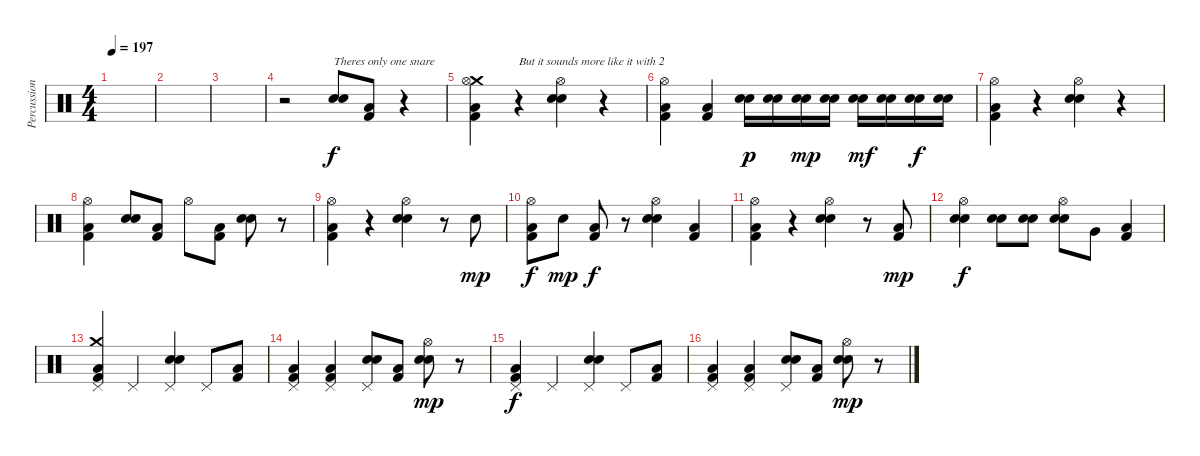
\track ("Percussion" "Percussion") {instrument percussion}
\staff {score}
\articulation defaults
\ts (4 4)
\tempo 197
\clef neutral
\ks c
|
|
|
r.2 ("Electric Snare (hit)" "Snare (hit) 2").8{txt "Theres only one snare"} ("Kick (hit) 2" "Low Floor Tom (hit)").8 r.4 |
("Crash medium (hit)" "Hi-Hat (open)" "Kick (hit) 2" "Low Floor Tom (hit)").4 r.4{txt "But it sounds more like it with 2"} ("Hi-Hat (open)" "Electric Snare (hit)" "Snare (hit) 2").4 r.4 |
("Hi-Hat (open)" "Kick (hit) 2" "Low Floor Tom (hit)").4 ("Kick (hit) 2" "Low Floor Tom (hit)").4 ("Electric Snare (hit)" "Snare (hit) 2").16{dy p} ("Electric Snare (hit)" "Snare (hit) 2").16 ("Electric Snare (hit)" "Snare (hit) 2").16{dy mp} ("Electric Snare (hit)" "Snare (hit) 2").16 ("Electric Snare (hit)" "Snare (hit) 2").16{dy mf} ("Electric Snare (hit)" "Snare (hit) 2").16 ("Electric Snare (hit)" "Snare (hit) 2").16{dy f} ("Electric Snare (hit)" "Snare (hit) 2").16 |
("Hi-Hat (open)" "Kick (hit) 2" "Low Floor Tom (hit)").4 r.4 ("Hi-Hat (open)" "Electric Snare (hit)" "Snare (hit) 2").4 r.4 |
("Hi-Hat (open)" "Kick (hit) 2" "Low Floor Tom (hit)").4 ("Electric Snare (hit)" "Snare (hit) 2").8 ("Kick (hit) 2" "Low Floor Tom (hit)").8 "Hi-Hat (open)".8 ("Kick (hit) 2" "Low Floor Tom (hit)").8 ("Electric Snare (hit)" "Snare (hit) 2").8 r.8 |
("Hi-Hat (open)" "Kick (hit) 2" "Low Floor Tom (hit)").4 r.4 ("Hi-Hat (open)" "Electric Snare (hit)" "Snare (hit) 2").4 r.8 "Snare (hit) 2".8{dy mp} |
("Hi-Hat (open)" "Kick (hit) 2" "Low Floor Tom (hit)").8{dy f} "Snare (hit) 2".8{dy mp} ("Kick (hit) 2" "Low Floor Tom (hit)").8{dy f} r.8 ("Hi-Hat (open)" "Electric Snare (hit)" "Snare (hit) 2").4 ("Kick (hit) 2" "Low Floor Tom (hit)").4 |
("Hi-Hat (open)" "Kick (hit) 2" "Low Floor Tom (hit)").4 r.4 ("Hi-Hat (open)" "Electric Snare (hit)" "Snare (hit) 2").4 r.8 ("Kick (hit) 2" "Low Floor Tom (hit)").8{dy mp} |
("Hi-Hat (open)" "Electric Snare (hit)" "Snare (hit) 2").4{dy f} ("Electric Snare (hit)" "Snare (hit) 2").8 ("Electric Snare (hit)" "Snare (hit) 2").8 ("Hi-Hat (open)" "Electric Snare (hit)" "Snare (hit) 2").8 "Very Low Tom (hit)".8 ("Kick (hit) 2" "Low Floor Tom (hit)").4 |
("Crash medium (hit)" "Pedal Hi-Hat (hit)" "Kick (hit) 2" "Low Floor Tom (hit)").4 "Pedal Hi-Hat (hit)".4 ("Pedal Hi-Hat (hit)" "Electric Snare (hit)" "Snare (hit) 2").4 "Pedal Hi-Hat (hit)".8 ("Kick (hit) 2" "Low Floor Tom (hit)").8 |
("Pedal Hi-Hat (hit)" "Kick (hit) 2" "Low Floor Tom (hit)").4 ("Pedal Hi-Hat (hit)" "Kick (hit) 2" "Low Floor Tom (hit)").4 ("Pedal Hi-Hat (hit)" "Electric Snare (hit)" "Snare (hit) 2").8 ("Kick (hit) 2" "Low Floor Tom (hit)").8 ("Hi-Hat (open)" "Electric Snare (hit)" "Snare (hit) 2").8{dy mp} r.8 |
("Pedal Hi-Hat (hit)" "Kick (hit) 2" "Low Floor Tom (hit)").4{dy f} "Pedal Hi-Hat (hit)".4 ("Pedal Hi-Hat (hit)" "Electric Snare (hit)" "Snare (hit) 2").4 "Pedal Hi-Hat (hit)".8 ("Kick (hit) 2" "Low Floor Tom (hit)").8 |
("Pedal Hi-Hat (hit)" "Kick (hit) 2" "Low Floor Tom (hit)").4 ("Pedal Hi-Hat (hit)" "Kick (hit) 2" "Low Floor Tom (hit)").4 ("Pedal Hi-Hat (hit)" "Electric Snare (hit)" "Snare (hit) 2").8 ("Kick (hit) 2" "Low Floor Tom (hit)").8 ("Hi-Hat (open)" "Electric Snare (hit)" "Snare (hit) 2").8{dy mp} r.8
